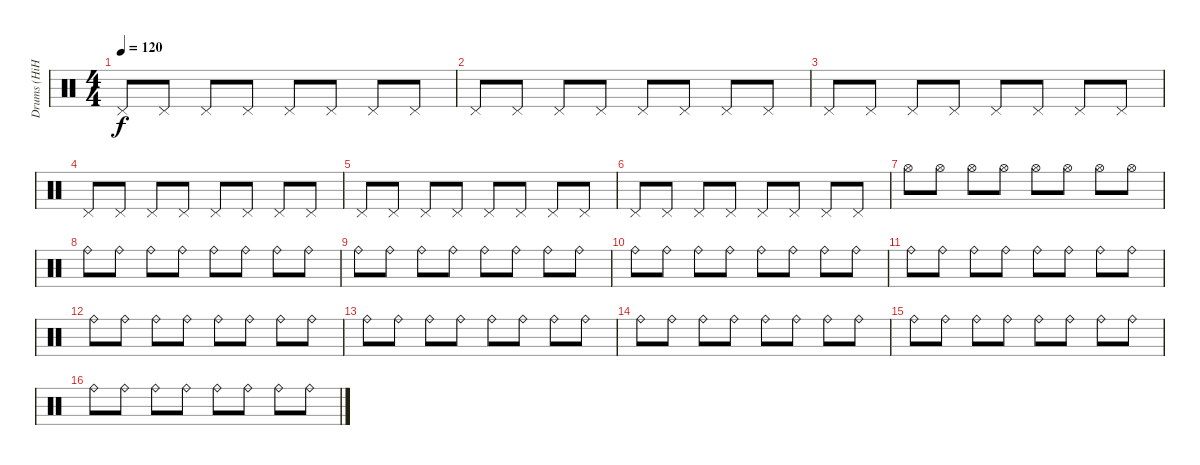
\track ("Drums (HiHat)" "Drums (HiH") {instrument percussion}
\staff {score}
\articulation defaults
\ts (4 4)
\tempo 120
\clef neutral
\ks c "Pedal Hi-Hat (hit)".8{dy f} "Pedal Hi-Hat (hit)".8 "Pedal Hi-Hat (hit)".8 "Pedal Hi-Hat (hit)".8 "Pedal Hi-Hat (hit)".8 "Pedal Hi-Hat (hit)".8 "Pedal Hi-Hat (hit)".8 "Pedal Hi-Hat (hit)".8
|
"Pedal Hi-Hat (hit)".8 "Pedal Hi-Hat (hit)".8 "Pedal Hi-Hat (hit)".8 "Pedal Hi-Hat (hit)".8 "Pedal Hi-Hat (hit)".8 "Pedal Hi-Hat (hit)".8 "Pedal Hi-Hat (hit)".8 "Pedal Hi-Hat (hit)".8 |
"Pedal Hi-Hat (hit)".8 "Pedal Hi-Hat (hit)".8 "Pedal Hi-Hat (hit)".8 "Pedal Hi-Hat (hit)".8 "Pedal Hi-Hat (hit)".8 "Pedal Hi-Hat (hit)".8 "Pedal Hi-Hat (hit)".8 "Pedal Hi-Hat (hit)".8 |
"Pedal Hi-Hat (hit)".8 "Pedal Hi-Hat (hit)".8 "Pedal Hi-Hat (hit)".8 "Pedal Hi-Hat (hit)".8 "Pedal Hi-Hat (hit)".8 "Pedal Hi-Hat (hit)".8 "Pedal Hi-Hat (hit)".8 "Pedal Hi-Hat (hit)".8 |
"Pedal Hi-Hat (hit)".8 "Pedal Hi-Hat (hit)".8 "Pedal Hi-Hat (hit)".8 "Pedal Hi-Hat (hit)".8 "Pedal Hi-Hat (hit)".8 "Pedal Hi-Hat (hit)".8 "Pedal Hi-Hat (hit)".8 "Pedal Hi-Hat (hit)".8 |
"Pedal Hi-Hat (hit)".8 "Pedal Hi-Hat (hit)".8 "Pedal Hi-Hat (hit)".8 "Pedal Hi-Hat (hit)".8 "Pedal Hi-Hat (hit)".8 "Pedal Hi-Hat (hit)".8 "Pedal Hi-Hat (hit)".8 "Pedal Hi-Hat (hit)".8 |
"Hi-Hat (open)".8 "Hi-Hat (open)".8 "Hi-Hat (open)".8 "Hi-Hat (open)".8 "Hi-Hat (open)".8 "Hi-Hat (open)".8 "Hi-Hat (open)".8 "Hi-Hat (open)".8 |
"Ride (bell)".8 "Ride (bell)".8 "Ride (bell)".8 "Ride (bell)".8 "Ride (bell)".8 "Ride (bell)".8 "Ride (bell)".8 "Ride (bell)".8 |
"Ride (bell)".8 "Ride (bell)".8 "Ride (bell)".8 "Ride (bell)".8 "Ride (bell)".8 "Ride (bell)".8 "Ride (bell)".8 "Ride (bell)".8 |
"Ride (bell)".8 "Ride (bell)".8 "Ride (bell)".8 "Ride (bell)".8 "Ride (bell)".8 "Ride (bell)".8 "Ride (bell)".8 "Ride (bell)".8 |
"Ride (bell)".8 "Ride (bell)".8 "Ride (bell)".8 "Ride (bell)".8 "Ride (bell)".8 "Ride (bell)".8 "Ride (bell)".8 "Ride (bell)".8 |
"Ride (bell)".8 "Ride (bell)".8 "Ride (bell)".8 "Ride (bell)".8 "Ride (bell)".8 "Ride (bell)".8 "Ride (bell)".8 "Ride (bell)".8 |
"Ride (bell)".8 "Ride (bell)".8 "Ride (bell)".8 "Ride (bell)".8 "Ride (bell)".8 "Ride (bell)".8 "Ride (bell)".8 "Ride (bell)".8 |
"Ride (bell)".8 "Ride (bell)".8 "Ride (bell)".8 "Ride (bell)".8 "Ride (bell)".8 "Ride (bell)".8 "Ride (bell)".8 "Ride (bell)".8 |
"Ride (bell)".8 "Ride (bell)".8 "Ride (bell)".8 "Ride (bell)".8 "Ride (bell)".8 "Ride (bell)".8 "Ride (bell)".8 "Ride (bell)".8 |
"Ride (bell)".8 "Ride (bell)".8 "Ride (bell)".8 "Ride (bell)".8 "Ride (bell)".8 "Ride (bell)".8 "Ride (bell)".8 "Ride (bell)".8
